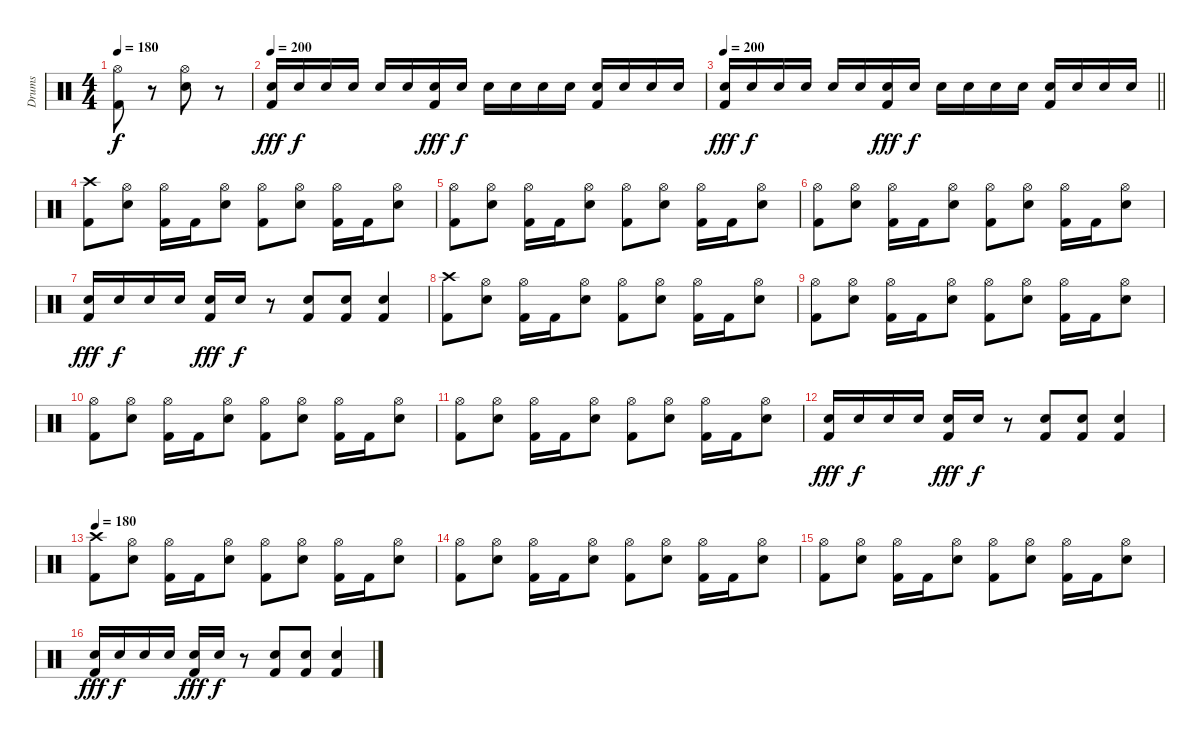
\track ("Drums" "Drums") {instrument percussion}
\staff {score}
\articulation defaults
\ts (4 4)
\tempo 180
\clef neutral
\ks c
("Hi-Hat (open)" "Kick (hit) 2").8{dy f} r.8 ("Hi-Hat (open)" "Electric Snare (hit)").8 r.8 |
\tempo 200
("Kick (hit) 2" "Snare (hit) 2").16{dy fff} "Snare (hit) 2".16{dy f} "Snare (hit) 2".16 "Snare (hit) 2".16 "Snare (hit) 2".16 "Snare (hit) 2".16 ("Kick (hit) 2" "Snare (hit) 2").16{dy fff} "Snare (hit) 2".16{dy f} "Snare (hit) 2".16 "Snare (hit) 2".16 "Snare (hit) 2".16 "Snare (hit) 2".16 ("Kick (hit) 2" "Snare (hit) 2").16 "Snare (hit) 2".16 "Snare (hit) 2".16 "Snare (hit) 2".16 |
\tempo 200
\barLineRight lightlight
("Kick (hit) 2" "Snare (hit) 2").16{dy fff} "Snare (hit) 2".16{dy f} "Snare (hit) 2".16 "Snare (hit) 2".16 "Snare (hit) 2".16 "Snare (hit) 2".16 ("Kick (hit) 2" "Snare (hit) 2").16{dy fff} "Snare (hit) 2".16{dy f} "Snare (hit) 2".16 "Snare (hit) 2".16 "Snare (hit) 2".16 "Snare (hit) 2".16 ("Kick (hit) 2" "Snare (hit) 2").16 "Snare (hit) 2".16 "Snare (hit) 2".16 "Snare (hit) 2".16 |
("Kick (hit) 2" "Crash high (hit)").8 ("Snare (hit) 2" "Hi-Hat (open)").8 ("Kick (hit) 2" "Hi-Hat (open)").16 "Kick (hit) 2".16 ("Snare (hit) 2" "Hi-Hat (open)").8 ("Kick (hit) 2" "Hi-Hat (open)").8 ("Snare (hit) 2" "Hi-Hat (open)").8 ("Kick (hit) 2" "Hi-Hat (open)").16 "Kick (hit) 2".16 ("Snare (hit) 2" "Hi-Hat (open)").8 |
("Kick (hit) 2" "Hi-Hat (open)").8 ("Snare (hit) 2" "Hi-Hat (open)").8 ("Kick (hit) 2" "Hi-Hat (open)").16 "Kick (hit) 2".16 ("Snare (hit) 2" "Hi-Hat (open)").8 ("Kick (hit) 2" "Hi-Hat (open)").8 ("Snare (hit) 2" "Hi-Hat (open)").8 ("Kick (hit) 2" "Hi-Hat (open)").16 "Kick (hit) 2".16 ("Snare (hit) 2" "Hi-Hat (open)").8 |
("Kick (hit) 2" "Hi-Hat (open)").8 ("Snare (hit) 2" "Hi-Hat (open)").8 ("Kick (hit) 2" "Hi-Hat (open)").16 "Kick (hit) 2".16 ("Snare (hit) 2" "Hi-Hat (open)").8 ("Kick (hit) 2" "Hi-Hat (open)").8 ("Snare (hit) 2" "Hi-Hat (open)").8 ("Kick (hit) 2" "Hi-Hat (open)").16 "Kick (hit) 2".16 ("Snare (hit) 2" "Hi-Hat (open)").8 |
("Kick (hit) 2" "Snare (hit) 2").16{dy fff} "Snare (hit) 2".16{dy f} "Snare (hit) 2".16 "Snare (hit) 2".16 ("Kick (hit) 2" "Snare (hit) 2").16{dy fff} "Snare (hit) 2".16{dy f} r.8 ("Kick (hit) 2" "Snare (hit) 2").8 ("Kick (hit) 2" "Snare (hit) 2").8 ("Kick (hit) 2" "Snare (hit) 2").4 |
("Kick (hit) 2" "Crash high (hit)").8 ("Snare (hit) 2" "Hi-Hat (open)").8 ("Kick (hit) 2" "Hi-Hat (open)").16 "Kick (hit) 2".16 ("Snare (hit) 2" "Hi-Hat (open)").8 ("Kick (hit) 2" "Hi-Hat (open)").8 ("Snare (hit) 2" "Hi-Hat (open)").8 ("Kick (hit) 2" "Hi-Hat (open)").16 "Kick (hit) 2".16 ("Snare (hit) 2" "Hi-Hat (open)").8 |
("Kick (hit) 2" "Hi-Hat (open)").8 ("Snare (hit) 2" "Hi-Hat (open)").8 ("Kick (hit) 2" "Hi-Hat (open)").16 "Kick (hit) 2".16 ("Snare (hit) 2" "Hi-Hat (open)").8 ("Kick (hit) 2" "Hi-Hat (open)").8 ("Snare (hit) 2" "Hi-Hat (open)").8 ("Kick (hit) 2" "Hi-Hat (open)").16 "Kick (hit) 2".16 ("Snare (hit) 2" "Hi-Hat (open)").8 |
("Kick (hit) 2" "Hi-Hat (open)").8 ("Snare (hit) 2" "Hi-Hat (open)").8 ("Kick (hit) 2" "Hi-Hat (open)").16 "Kick (hit) 2".16 ("Snare (hit) 2" "Hi-Hat (open)").8 ("Kick (hit) 2" "Hi-Hat (open)").8 ("Snare (hit) 2" "Hi-Hat (open)").8 ("Kick (hit) 2" "Hi-Hat (open)").16 "Kick (hit) 2".16 ("Snare (hit) 2" "Hi-Hat (open)").8 |
("Kick (hit) 2" "Hi-Hat (open)").8 ("Snare (hit) 2" "Hi-Hat (open)").8 ("Kick (hit) 2" "Hi-Hat (open)").16 "Kick (hit) 2".16 ("Snare (hit) 2" "Hi-Hat (open)").8 ("Kick (hit) 2" "Hi-Hat (open)").8 ("Snare (hit) 2" "Hi-Hat (open)").8 ("Kick (hit) 2" "Hi-Hat (open)").16 "Kick (hit) 2".16 ("Snare (hit) 2" "Hi-Hat (open)").8 |
("Kick (hit) 2" "Snare (hit) 2").16{dy fff} "Snare (hit) 2".16{dy f} "Snare (hit) 2".16 "Snare (hit) 2".16 ("Kick (hit) 2" "Snare (hit) 2").16{dy fff} "Snare (hit) 2".16{dy f} r.8 ("Kick (hit) 2" "Snare (hit) 2").8 ("Kick (hit) 2" "Snare (hit) 2").8 ("Kick (hit) 2" "Snare (hit) 2").4 |
\tempo 180
("Kick (hit) 2" "Crash high (hit)").8 ("Snare (hit) 2" "Hi-Hat (open)").8 ("Kick (hit) 2" "Hi-Hat (open)").16 "Kick (hit) 2".16 ("Snare (hit) 2" "Hi-Hat (open)").8 ("Kick (hit) 2" "Hi-Hat (open)").8 ("Snare (hit) 2" "Hi-Hat (open)").8 ("Kick (hit) 2" "Hi-Hat (open)").16 "Kick (hit) 2".16 ("Snare (hit) 2" "Hi-Hat (open)").8 |
("Kick (hit) 2" "Hi-Hat (open)").8 ("Snare (hit) 2" "Hi-Hat (open)").8 ("Kick (hit) 2" "Hi-Hat (open)").16 "Kick (hit) 2".16 ("Snare (hit) 2" "Hi-Hat (open)").8 ("Kick (hit) 2" "Hi-Hat (open)").8 ("Snare (hit) 2" "Hi-Hat (open)").8 ("Kick (hit) 2" "Hi-Hat (open)").16 "Kick (hit) 2".16 ("Snare (hit) 2" "Hi-Hat (open)").8 |
("Kick (hit) 2" "Hi-Hat (open)").8 ("Snare (hit) 2" "Hi-Hat (open)").8 ("Kick (hit) 2" "Hi-Hat (open)").16 "Kick (hit) 2".16 ("Snare (hit) 2" "Hi-Hat (open)").8 ("Kick (hit) 2" "Hi-Hat (open)").8 ("Snare (hit) 2" "Hi-Hat (open)").8 ("Kick (hit) 2" "Hi-Hat (open)").16 "Kick (hit) 2".16 ("Snare (hit) 2" "Hi-Hat (open)").8 |
("Kick (hit) 2" "Snare (hit) 2").16{dy fff} "Snare (hit) 2".16{dy f} "Snare (hit) 2".16 "Snare (hit) 2".16 ("Kick (hit) 2" "Snare (hit) 2").16{dy fff} "Snare (hit) 2".16{dy f} r.8 ("Kick (hit) 2" "Snare (hit) 2").8 ("Kick (hit) 2" "Snare (hit) 2").8 ("Kick (hit) 2" "Snare (hit) 2").4
